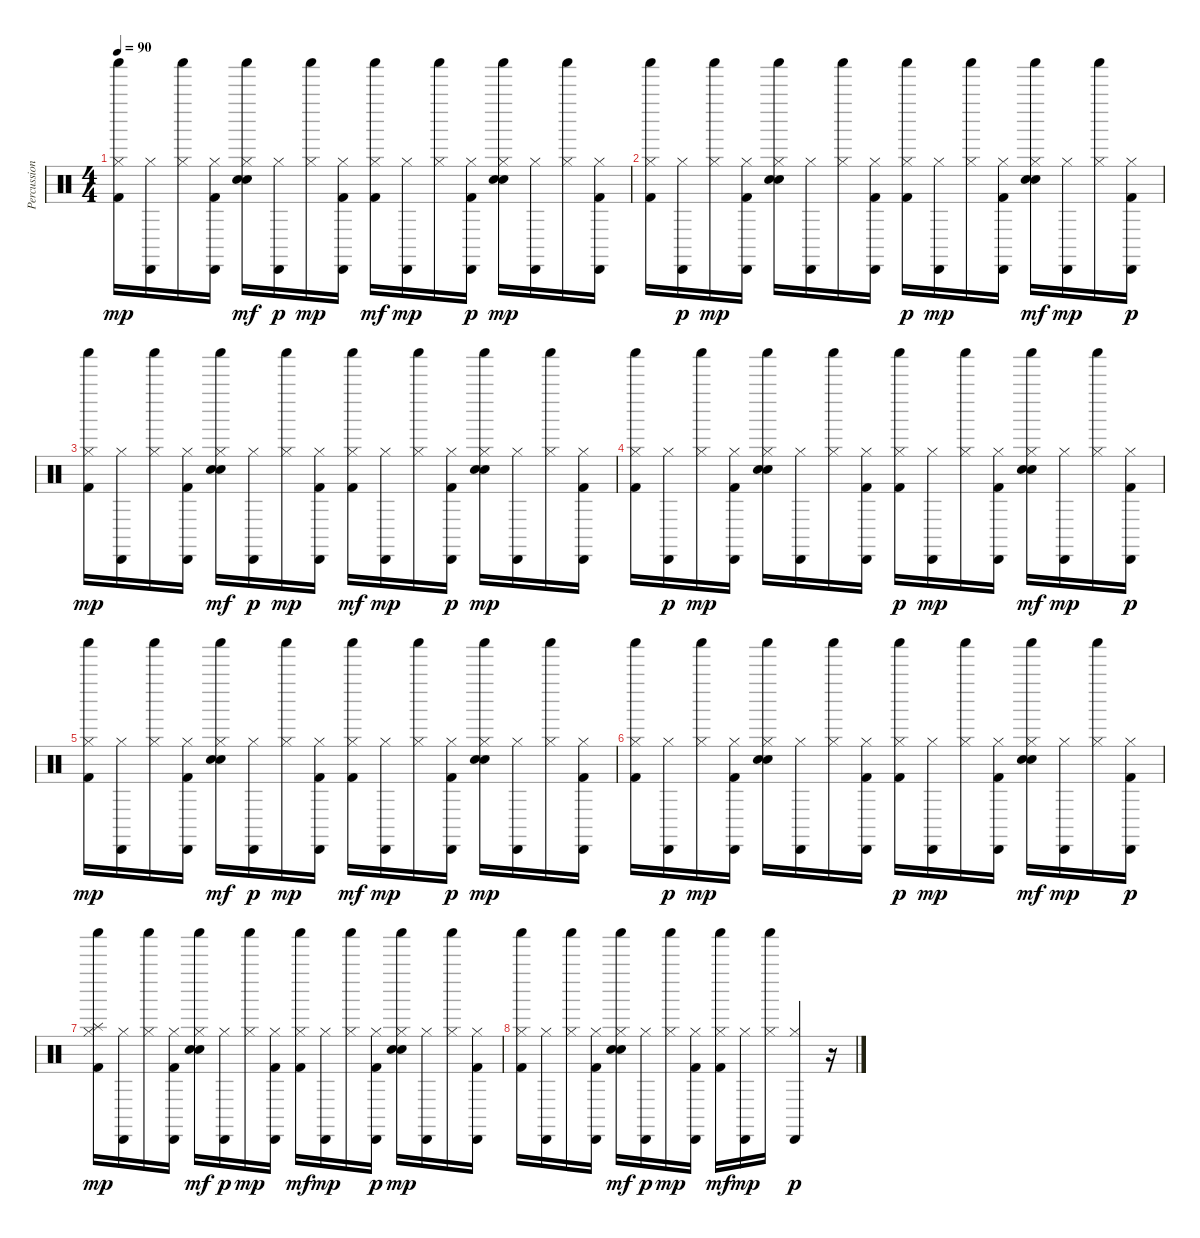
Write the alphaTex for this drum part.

\track ("Percussions" "Percussion") {instrument percussion}
\staff {score}
\articulation defaults
\ts (4 4)
\tempo 90
\clef neutral
\ks c
("Kick (hit) 2" "Hi-Hat (closed)" "Shaker (hit)").16{dy mp} ("Hi-Hat (closed)" "Cabasa (hit)").16 ("Hi-Hat (closed)" "Shaker (hit)").16 ("Kick (hit) 2" "Hi-Hat (closed)" "Cabasa (hit)").16 ("Hand Clap (hit)" "Electric Snare (hit)" "Hi-Hat (closed)" "Shaker (hit)").16{dy mf} ("Hi-Hat (closed)" "Cabasa (hit)").16{dy p} ("Hi-Hat (closed)" "Shaker (hit)").16{dy mp} ("Kick (hit) 2" "Hi-Hat (closed)" "Cabasa (hit)").16 ("Kick (hit) 2" "Hi-Hat (closed)" "Shaker (hit)").16{dy mf} ("Hi-Hat (closed)" "Cabasa (hit)").16{dy mp} ("Hi-Hat (closed)" "Shaker (hit)").16 ("Kick (hit) 2" "Hi-Hat (closed)" "Cabasa (hit)").16{dy p} ("Hand Clap (hit)" "Electric Snare (hit)" "Hi-Hat (closed)" "Shaker (hit)").16{dy mp} ("Hi-Hat (closed)" "Cabasa (hit)").16 ("Hi-Hat (closed)" "Shaker (hit)").16 ("Kick (hit) 2" "Hi-Hat (closed)" "Cabasa (hit)").16 |
("Kick (hit) 2" "Hi-Hat (closed)" "Shaker (hit)").16 ("Hi-Hat (closed)" "Cabasa (hit)").16{dy p} ("Hi-Hat (closed)" "Shaker (hit)").16{dy mp} ("Kick (hit) 2" "Hi-Hat (closed)" "Cabasa (hit)").16 ("Hand Clap (hit)" "Electric Snare (hit)" "Hi-Hat (closed)" "Shaker (hit)").16 ("Hi-Hat (closed)" "Cabasa (hit)").16 ("Hi-Hat (closed)" "Shaker (hit)").16 ("Kick (hit) 2" "Hi-Hat (closed)" "Cabasa (hit)").16 ("Kick (hit) 2" "Hi-Hat (closed)" "Shaker (hit)").16{dy p} ("Hi-Hat (closed)" "Cabasa (hit)").16{dy mp} ("Hi-Hat (closed)" "Shaker (hit)").16 ("Kick (hit) 2" "Hi-Hat (closed)" "Cabasa (hit)").16 ("Hand Clap (hit)" "Electric Snare (hit)" "Hi-Hat (closed)" "Shaker (hit)").16{dy mf} ("Hi-Hat (closed)" "Cabasa (hit)").16{dy mp} ("Hi-Hat (closed)" "Shaker (hit)").16 ("Kick (hit) 2" "Hi-Hat (closed)" "Cabasa (hit)").16{dy p} |
("Kick (hit) 2" "Hi-Hat (closed)" "Shaker (hit)").16{dy mp} ("Hi-Hat (closed)" "Cabasa (hit)").16 ("Hi-Hat (closed)" "Shaker (hit)").16 ("Kick (hit) 2" "Hi-Hat (closed)" "Cabasa (hit)").16 ("Hand Clap (hit)" "Electric Snare (hit)" "Hi-Hat (closed)" "Shaker (hit)").16{dy mf} ("Hi-Hat (closed)" "Cabasa (hit)").16{dy p} ("Hi-Hat (closed)" "Shaker (hit)").16{dy mp} ("Kick (hit) 2" "Hi-Hat (closed)" "Cabasa (hit)").16 ("Kick (hit) 2" "Hi-Hat (closed)" "Shaker (hit)").16{dy mf} ("Hi-Hat (closed)" "Cabasa (hit)").16{dy mp} ("Hi-Hat (closed)" "Shaker (hit)").16 ("Kick (hit) 2" "Hi-Hat (closed)" "Cabasa (hit)").16{dy p} ("Hand Clap (hit)" "Electric Snare (hit)" "Hi-Hat (closed)" "Shaker (hit)").16{dy mp} ("Hi-Hat (closed)" "Cabasa (hit)").16 ("Hi-Hat (closed)" "Shaker (hit)").16 ("Kick (hit) 2" "Hi-Hat (closed)" "Cabasa (hit)").16 |
("Kick (hit) 2" "Hi-Hat (closed)" "Shaker (hit)").16 ("Hi-Hat (closed)" "Cabasa (hit)").16{dy p} ("Hi-Hat (closed)" "Shaker (hit)").16{dy mp} ("Kick (hit) 2" "Hi-Hat (closed)" "Cabasa (hit)").16 ("Hand Clap (hit)" "Electric Snare (hit)" "Hi-Hat (closed)" "Shaker (hit)").16 ("Hi-Hat (closed)" "Cabasa (hit)").16 ("Hi-Hat (closed)" "Shaker (hit)").16 ("Kick (hit) 2" "Hi-Hat (closed)" "Cabasa (hit)").16 ("Kick (hit) 2" "Hi-Hat (closed)" "Shaker (hit)").16{dy p} ("Hi-Hat (closed)" "Cabasa (hit)").16{dy mp} ("Hi-Hat (closed)" "Shaker (hit)").16 ("Kick (hit) 2" "Hi-Hat (closed)" "Cabasa (hit)").16 ("Hand Clap (hit)" "Electric Snare (hit)" "Hi-Hat (closed)" "Shaker (hit)").16{dy mf} ("Hi-Hat (closed)" "Cabasa (hit)").16{dy mp} ("Hi-Hat (closed)" "Shaker (hit)").16 ("Kick (hit) 2" "Hi-Hat (closed)" "Cabasa (hit)").16{dy p} |
("Kick (hit) 2" "Hi-Hat (closed)" "Shaker (hit)").16{dy mp} ("Hi-Hat (closed)" "Cabasa (hit)").16 ("Hi-Hat (closed)" "Shaker (hit)").16 ("Kick (hit) 2" "Hi-Hat (closed)" "Cabasa (hit)").16 ("Hand Clap (hit)" "Electric Snare (hit)" "Hi-Hat (closed)" "Shaker (hit)").16{dy mf} ("Hi-Hat (closed)" "Cabasa (hit)").16{dy p} ("Hi-Hat (closed)" "Shaker (hit)").16{dy mp} ("Kick (hit) 2" "Hi-Hat (closed)" "Cabasa (hit)").16 ("Kick (hit) 2" "Hi-Hat (closed)" "Shaker (hit)").16{dy mf} ("Hi-Hat (closed)" "Cabasa (hit)").16{dy mp} ("Hi-Hat (closed)" "Shaker (hit)").16 ("Kick (hit) 2" "Hi-Hat (closed)" "Cabasa (hit)").16{dy p} ("Hand Clap (hit)" "Electric Snare (hit)" "Hi-Hat (closed)" "Shaker (hit)").16{dy mp} ("Hi-Hat (closed)" "Cabasa (hit)").16 ("Hi-Hat (closed)" "Shaker (hit)").16 ("Kick (hit) 2" "Hi-Hat (closed)" "Cabasa (hit)").16 |
("Kick (hit) 2" "Hi-Hat (closed)" "Shaker (hit)").16 ("Hi-Hat (closed)" "Cabasa (hit)").16{dy p} ("Hi-Hat (closed)" "Shaker (hit)").16{dy mp} ("Kick (hit) 2" "Hi-Hat (closed)" "Cabasa (hit)").16 ("Hand Clap (hit)" "Electric Snare (hit)" "Hi-Hat (closed)" "Shaker (hit)").16 ("Hi-Hat (closed)" "Cabasa (hit)").16 ("Hi-Hat (closed)" "Shaker (hit)").16 ("Kick (hit) 2" "Hi-Hat (closed)" "Cabasa (hit)").16 ("Kick (hit) 2" "Hi-Hat (closed)" "Shaker (hit)").16{dy p} ("Hi-Hat (closed)" "Cabasa (hit)").16{dy mp} ("Hi-Hat (closed)" "Shaker (hit)").16 ("Kick (hit) 2" "Hi-Hat (closed)" "Cabasa (hit)").16 ("Hand Clap (hit)" "Electric Snare (hit)" "Hi-Hat (closed)" "Shaker (hit)").16{dy mf} ("Hi-Hat (closed)" "Cabasa (hit)").16{dy mp} ("Hi-Hat (closed)" "Shaker (hit)").16 ("Kick (hit) 2" "Hi-Hat (closed)" "Cabasa (hit)").16{dy p} |
("Kick (hit) 2" "Hi-Hat (closed)" "Splash (hit)" "Shaker (hit)").16{dy mp} ("Hi-Hat (closed)" "Cabasa (hit)").16 ("Hi-Hat (closed)" "Shaker (hit)").16 ("Kick (hit) 2" "Hi-Hat (closed)" "Cabasa (hit)").16 ("Hand Clap (hit)" "Electric Snare (hit)" "Hi-Hat (closed)" "Shaker (hit)").16{dy mf} ("Hi-Hat (closed)" "Cabasa (hit)").16{dy p} ("Hi-Hat (closed)" "Shaker (hit)").16{dy mp} ("Kick (hit) 2" "Hi-Hat (closed)" "Cabasa (hit)").16 ("Kick (hit) 2" "Hi-Hat (closed)" "Shaker (hit)").16{dy mf} ("Hi-Hat (closed)" "Cabasa (hit)").16{dy mp} ("Hi-Hat (closed)" "Shaker (hit)").16 ("Kick (hit) 2" "Hi-Hat (closed)" "Cabasa (hit)").16{dy p} ("Hand Clap (hit)" "Electric Snare (hit)" "Hi-Hat (closed)" "Shaker (hit)").16{dy mp} ("Hi-Hat (closed)" "Cabasa (hit)").16 ("Hi-Hat (closed)" "Shaker (hit)").16 ("Kick (hit) 2" "Hi-Hat (closed)" "Cabasa (hit)").16 |
("Kick (hit) 2" "Hi-Hat (closed)" "Shaker (hit)").16 ("Hi-Hat (closed)" "Cabasa (hit)").16 ("Hi-Hat (closed)" "Shaker (hit)").16 ("Kick (hit) 2" "Hi-Hat (closed)" "Cabasa (hit)").16 ("Hand Clap (hit)" "Electric Snare (hit)" "Hi-Hat (closed)" "Shaker (hit)").16{dy mf} ("Hi-Hat (closed)" "Cabasa (hit)").16{dy p} ("Hi-Hat (closed)" "Shaker (hit)").16{dy mp} ("Kick (hit) 2" "Hi-Hat (closed)" "Cabasa (hit)").16 ("Kick (hit) 2" "Hi-Hat (closed)" "Shaker (hit)").16{dy mf} ("Hi-Hat (closed)" "Cabasa (hit)").16{dy mp} ("Hi-Hat (closed)" "Shaker (hit)").16 ("Hi-Hat (closed)" "Cabasa (hit)").4{dy p} r.16
